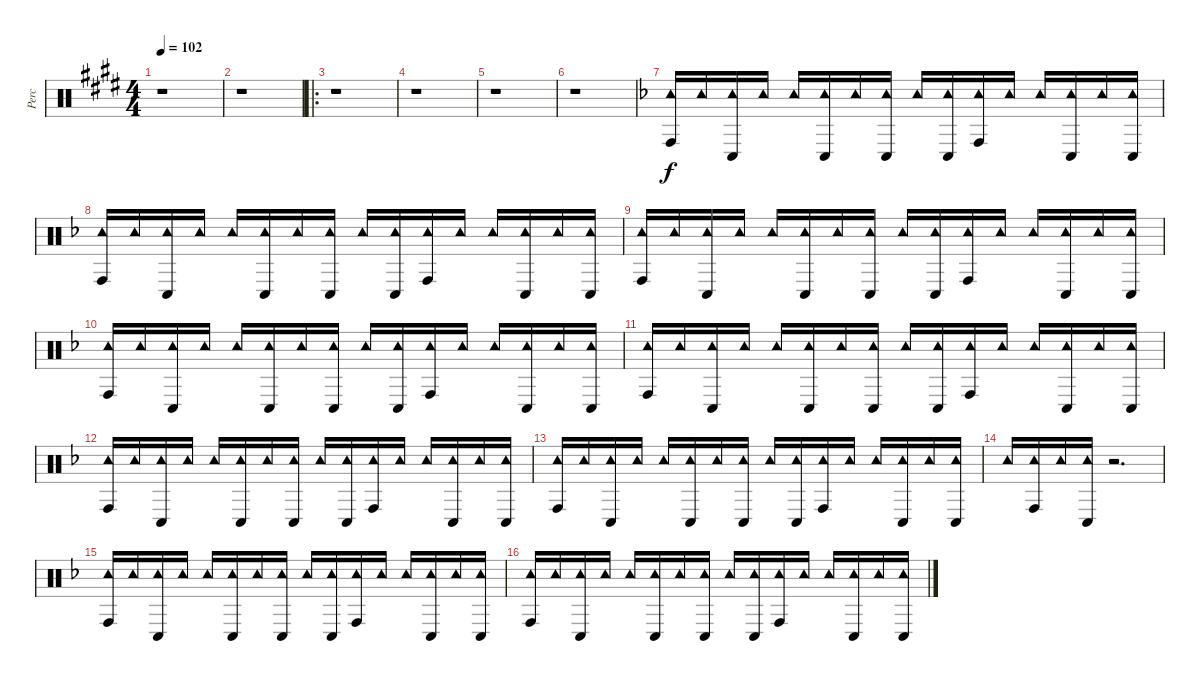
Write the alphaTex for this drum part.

\track ("Perc" "Perc") {instrument percussion}
\staff {score}
\articulation defaults
\ts (4 4)
\tempo 102
\clef neutral
\ks e
r.1{dy f} |
r.1 |
\ro
r.1 |
r.1 |
r.1 |
r.1 |
\ks f
("Tambourine (hit)" "Conga high (hit)").16 "Tambourine (hit)".16 ("Tambourine (hit)" "Conga low (hit)").16 "Tambourine (hit)".16 "Tambourine (hit)".16 ("Tambourine (hit)" "Conga low (hit)").16 "Tambourine (hit)".16 ("Tambourine (hit)" "Conga low (hit)").16 "Tambourine (hit)".16 ("Tambourine (hit)" "Conga low (hit)").16 ("Tambourine (hit)" "Conga high (hit)").16 "Tambourine (hit)".16 "Tambourine (hit)".16 ("Tambourine (hit)" "Conga low (hit)").16 "Tambourine (hit)".16 ("Tambourine (hit)" "Conga low (hit)").16 |
("Tambourine (hit)" "Conga high (hit)").16 "Tambourine (hit)".16 ("Tambourine (hit)" "Conga low (hit)").16 "Tambourine (hit)".16 "Tambourine (hit)".16 ("Tambourine (hit)" "Conga low (hit)").16 "Tambourine (hit)".16 ("Tambourine (hit)" "Conga low (hit)").16 "Tambourine (hit)".16 ("Tambourine (hit)" "Conga low (hit)").16 ("Tambourine (hit)" "Conga high (hit)").16 "Tambourine (hit)".16 "Tambourine (hit)".16 ("Tambourine (hit)" "Conga low (hit)").16 "Tambourine (hit)".16 ("Tambourine (hit)" "Conga low (hit)").16 |
("Tambourine (hit)" "Conga high (hit)").16 "Tambourine (hit)".16 ("Tambourine (hit)" "Conga low (hit)").16 "Tambourine (hit)".16 "Tambourine (hit)".16 ("Tambourine (hit)" "Conga low (hit)").16 "Tambourine (hit)".16 ("Tambourine (hit)" "Conga low (hit)").16 "Tambourine (hit)".16 ("Tambourine (hit)" "Conga low (hit)").16 ("Tambourine (hit)" "Conga high (hit)").16 "Tambourine (hit)".16 "Tambourine (hit)".16 ("Tambourine (hit)" "Conga low (hit)").16 "Tambourine (hit)".16 ("Tambourine (hit)" "Conga low (hit)").16 |
("Tambourine (hit)" "Conga high (hit)").16 "Tambourine (hit)".16 ("Tambourine (hit)" "Conga low (hit)").16 "Tambourine (hit)".16 "Tambourine (hit)".16 ("Tambourine (hit)" "Conga low (hit)").16 "Tambourine (hit)".16 ("Tambourine (hit)" "Conga low (hit)").16 "Tambourine (hit)".16 ("Tambourine (hit)" "Conga low (hit)").16 ("Tambourine (hit)" "Conga high (hit)").16 "Tambourine (hit)".16 "Tambourine (hit)".16 ("Tambourine (hit)" "Conga low (hit)").16 "Tambourine (hit)".16 ("Tambourine (hit)" "Conga low (hit)").16 |
("Tambourine (hit)" "Conga high (hit)").16 "Tambourine (hit)".16 ("Tambourine (hit)" "Conga low (hit)").16 "Tambourine (hit)".16 "Tambourine (hit)".16 ("Tambourine (hit)" "Conga low (hit)").16 "Tambourine (hit)".16 ("Tambourine (hit)" "Conga low (hit)").16 "Tambourine (hit)".16 ("Tambourine (hit)" "Conga low (hit)").16 ("Tambourine (hit)" "Conga high (hit)").16 "Tambourine (hit)".16 "Tambourine (hit)".16 ("Tambourine (hit)" "Conga low (hit)").16 "Tambourine (hit)".16 ("Tambourine (hit)" "Conga low (hit)").16 |
("Tambourine (hit)" "Conga high (hit)").16 "Tambourine (hit)".16 ("Tambourine (hit)" "Conga low (hit)").16 "Tambourine (hit)".16 "Tambourine (hit)".16 ("Tambourine (hit)" "Conga low (hit)").16 "Tambourine (hit)".16 ("Tambourine (hit)" "Conga low (hit)").16 "Tambourine (hit)".16 ("Tambourine (hit)" "Conga low (hit)").16 ("Tambourine (hit)" "Conga high (hit)").16 "Tambourine (hit)".16 "Tambourine (hit)".16 ("Tambourine (hit)" "Conga low (hit)").16 "Tambourine (hit)".16 ("Tambourine (hit)" "Conga low (hit)").16 |
("Tambourine (hit)" "Conga high (hit)").16 "Tambourine (hit)".16 ("Tambourine (hit)" "Conga low (hit)").16 "Tambourine (hit)".16 "Tambourine (hit)".16 ("Tambourine (hit)" "Conga low (hit)").16 "Tambourine (hit)".16 ("Tambourine (hit)" "Conga low (hit)").16 "Tambourine (hit)".16 ("Tambourine (hit)" "Conga low (hit)").16 ("Tambourine (hit)" "Conga high (hit)").16 "Tambourine (hit)".16 "Tambourine (hit)".16 ("Tambourine (hit)" "Conga low (hit)").16 "Tambourine (hit)".16 ("Tambourine (hit)" "Conga low (hit)").16 |
"Tambourine (hit)".16 ("Tambourine (hit)" "Conga high (hit)").16 "Tambourine (hit)".16 ("Tambourine (hit)" "Conga low (hit)").16 r.2{d} |
("Tambourine (hit)" "Conga high (hit)").16 "Tambourine (hit)".16 ("Tambourine (hit)" "Conga low (hit)").16 "Tambourine (hit)".16 "Tambourine (hit)".16 ("Tambourine (hit)" "Conga low (hit)").16 "Tambourine (hit)".16 ("Tambourine (hit)" "Conga low (hit)").16 "Tambourine (hit)".16 ("Tambourine (hit)" "Conga low (hit)").16 ("Tambourine (hit)" "Conga high (hit)").16 "Tambourine (hit)".16 "Tambourine (hit)".16 ("Tambourine (hit)" "Conga low (hit)").16 "Tambourine (hit)".16 ("Tambourine (hit)" "Conga low (hit)").16 |
("Tambourine (hit)" "Conga high (hit)").16 "Tambourine (hit)".16 ("Tambourine (hit)" "Conga low (hit)").16 "Tambourine (hit)".16 "Tambourine (hit)".16 ("Tambourine (hit)" "Conga low (hit)").16 "Tambourine (hit)".16 ("Tambourine (hit)" "Conga low (hit)").16 "Tambourine (hit)".16 ("Tambourine (hit)" "Conga low (hit)").16 ("Tambourine (hit)" "Conga high (hit)").16 "Tambourine (hit)".16 "Tambourine (hit)".16 ("Tambourine (hit)" "Conga low (hit)").16 "Tambourine (hit)".16 ("Tambourine (hit)" "Conga low (hit)").16
